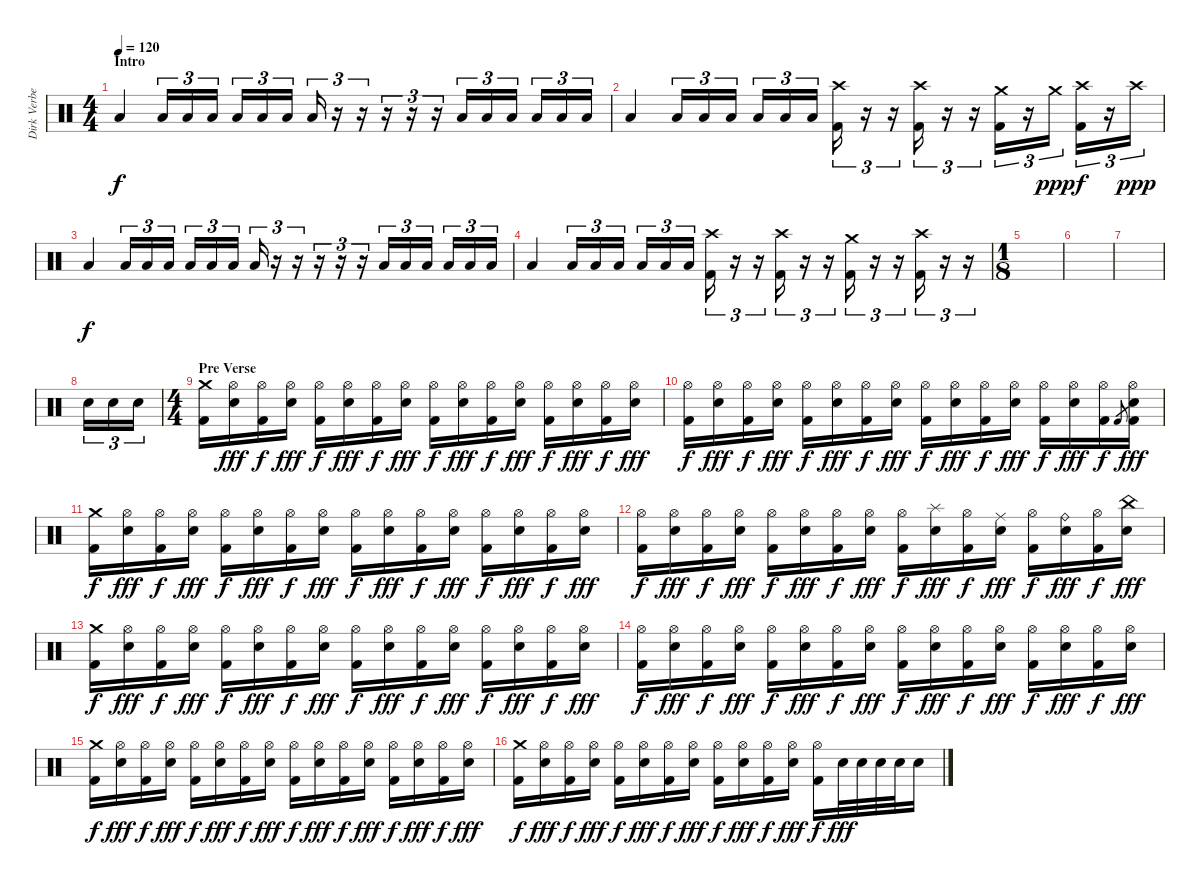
\track ("Dirk Verbeuren" "Dirk Verbe") {instrument percussion}
\staff {score}
\articulation defaults
\ts (4 4)
\section ("" "Intro")
\tempo 120
\clef neutral
\ks c "Low Floor Tom (hit)".4{dy f} "Low Floor Tom (hit)".16{tu (3 2)} "Low Floor Tom (hit)".16{tu (3 2)} "Low Floor Tom (hit)".16{tu (3 2)} "Low Floor Tom (hit)".16{tu (3 2)} "Low Floor Tom (hit)".16{tu (3 2)} "Low Floor Tom (hit)".16{tu (3 2)} "Low Floor Tom (hit)".16{tu (3 2)}
r.16{tu (3 2)} r.16{tu (3 2)} r.16{tu (3 2)} r.16{tu (3 2)} r.16{tu (3 2)} "Low Floor Tom (hit)".16{tu (3 2)} "Low Floor Tom (hit)".16{tu (3 2)} "Low Floor Tom (hit)".16{tu (3 2)} "Low Floor Tom (hit)".16{tu (3 2)} "Low Floor Tom (hit)".16{tu (3 2)} "Low Floor Tom (hit)".16{tu (3 2)} |
"Low Floor Tom (hit)".4 "Low Floor Tom (hit)".16{tu (3 2)} "Low Floor Tom (hit)".16{tu (3 2)} "Low Floor Tom (hit)".16{tu (3 2)} "Low Floor Tom (hit)".16{tu (3 2)} "Low Floor Tom (hit)".16{tu (3 2)} "Low Floor Tom (hit)".16{tu (3 2)} ("Kick (hit) 2" "Crash high (hit)").16{tu (3 2)} r.16{tu (3 2)} r.16{tu (3 2)} ("Kick (hit) 2" "Crash high (hit)").16{tu (3 2)} r.16{tu (3 2)} r.16{tu (3 2)} ("Kick (hit) 2" "Crash medium (hit)").16{tu (3 2)} r.16{tu (3 2)} "Crash medium (hit)".16{tu (3 2) dy ppp} ("Kick (hit) 2" "Crash high (hit)").16{tu (3 2) dy f} r.16{tu (3 2)} "Crash high (hit)".16{tu (3 2) dy ppp} |
"Low Floor Tom (hit)".4{dy f} "Low Floor Tom (hit)".16{tu (3 2)} "Low Floor Tom (hit)".16{tu (3 2)} "Low Floor Tom (hit)".16{tu (3 2)} "Low Floor Tom (hit)".16{tu (3 2)} "Low Floor Tom (hit)".16{tu (3 2)} "Low Floor Tom (hit)".16{tu (3 2)} "Low Floor Tom (hit)".16{tu (3 2)} r.16{tu (3 2)} r.16{tu (3 2)} r.16{tu (3 2)} r.16{tu (3 2)} r.16{tu (3 2)} "Low Floor Tom (hit)".16{tu (3 2)} "Low Floor Tom (hit)".16{tu (3 2)} "Low Floor Tom (hit)".16{tu (3 2)} "Low Floor Tom (hit)".16{tu (3 2)} "Low Floor Tom (hit)".16{tu (3 2)} "Low Floor Tom (hit)".16{tu (3 2)} |
"Low Floor Tom (hit)".4 "Low Floor Tom (hit)".16{tu (3 2)} "Low Floor Tom (hit)".16{tu (3 2)} "Low Floor Tom (hit)".16{tu (3 2)} "Low Floor Tom (hit)".16{tu (3 2)} "Low Floor Tom (hit)".16{tu (3 2)} "Low Floor Tom (hit)".16{tu (3 2)} ("Kick (hit) 2" "Crash high (hit)").16{tu (3 2)} r.16{tu (3 2)} r.16{tu (3 2)} ("Kick (hit) 2" "Crash high (hit)").16{tu (3 2)} r.16{tu (3 2)} r.16{tu (3 2)} ("Kick (hit) 2" "Crash medium (hit)").16{tu (3 2)} r.16{tu (3 2)} r.16{tu (3 2)} ("Kick (hit) 2" "Crash high (hit)").16{tu (3 2)} r.16{tu (3 2)} r.16{tu (3 2)} |
\ts (1 8)
|
|
|
"Electric Snare (hit)".16{tu (3 2)} "Electric Snare (hit)".16{tu (3 2)} "Electric Snare (hit)".16{tu (3 2)} |
\ts (4 4)
\section ("" "Pre Verse")
("Kick (hit) 2" "Crash medium (hit)").16 ("Electric Snare (hit)" "Hi-Hat (open)").16{dy fff} ("Kick (hit) 2" "Hi-Hat (open)").16{dy f} ("Electric Snare (hit)" "Hi-Hat (open)").16{dy fff} ("Kick (hit) 2" "Hi-Hat (open)").16{dy f} ("Electric Snare (hit)" "Hi-Hat (open)").16{dy fff} ("Kick (hit) 2" "Hi-Hat (open)").16{dy f} ("Electric Snare (hit)" "Hi-Hat (open)").16{dy fff} ("Kick (hit) 2" "Hi-Hat (open)").16{dy f} ("Electric Snare (hit)" "Hi-Hat (open)").16{dy fff} ("Kick (hit) 2" "Hi-Hat (open)").16{dy f} ("Electric Snare (hit)" "Hi-Hat (open)").16{dy fff} ("Kick (hit) 2" "Hi-Hat (open)").16{dy f} ("Electric Snare (hit)" "Hi-Hat (open)").16{dy fff} ("Kick (hit) 2" "Hi-Hat (open)").16{dy f} ("Electric Snare (hit)" "Hi-Hat (open)").16{dy fff} |
("Kick (hit) 2" "Hi-Hat (open)").16{dy f} ("Electric Snare (hit)" "Hi-Hat (open)").16{dy fff} ("Kick (hit) 2" "Hi-Hat (open)").16{dy f} ("Electric Snare (hit)" "Hi-Hat (open)").16{dy fff} ("Kick (hit) 2" "Hi-Hat (open)").16{dy f} ("Electric Snare (hit)" "Hi-Hat (open)").16{dy fff} ("Kick (hit) 2" "Hi-Hat (open)").16{dy f} ("Electric Snare (hit)" "Hi-Hat (open)").16{dy fff} ("Kick (hit) 2" "Hi-Hat (open)").16{dy f} ("Electric Snare (hit)" "Hi-Hat (open)").16{dy fff} ("Kick (hit) 2" "Hi-Hat (open)").16{dy f} ("Electric Snare (hit)" "Hi-Hat (open)").16{dy fff} ("Kick (hit) 2" "Hi-Hat (open)").16{dy f} ("Electric Snare (hit)" "Hi-Hat (open)").16{dy fff} ("Kick (hit) 2" "Hi-Hat (open)").16{dy f} "Kick (hit) 2".8{gr} ("Kick (hit) 2" "Electric Snare (hit)" "Hi-Hat (open)").16{dy fff} |
("Kick (hit) 2" "Crash medium (hit)").16{dy f} ("Electric Snare (hit)" "Hi-Hat (open)").16{dy fff} ("Kick (hit) 2" "Hi-Hat (open)").16{dy f} ("Electric Snare (hit)" "Hi-Hat (open)").16{dy fff} ("Kick (hit) 2" "Hi-Hat (open)").16{dy f} ("Electric Snare (hit)" "Hi-Hat (open)").16{dy fff} ("Kick (hit) 2" "Hi-Hat (open)").16{dy f} ("Electric Snare (hit)" "Hi-Hat (open)").16{dy fff} ("Kick (hit) 2" "Hi-Hat (open)").16{dy f} ("Electric Snare (hit)" "Hi-Hat (open)").16{dy fff} ("Kick (hit) 2" "Hi-Hat (open)").16{dy f} ("Electric Snare (hit)" "Hi-Hat (open)").16{dy fff} ("Kick (hit) 2" "Hi-Hat (open)").16{dy f} ("Electric Snare (hit)" "Hi-Hat (open)").16{dy fff} ("Kick (hit) 2" "Hi-Hat (open)").16{dy f} ("Electric Snare (hit)" "Hi-Hat (open)").16{dy fff} |
("Kick (hit) 2" "Hi-Hat (open)").16{dy f} ("Electric Snare (hit)" "Hi-Hat (open)").16{dy fff} ("Kick (hit) 2" "Hi-Hat (open)").16{dy f} ("Electric Snare (hit)" "Hi-Hat (open)").16{dy fff} ("Kick (hit) 2" "Hi-Hat (open)").16{dy f} ("Electric Snare (hit)" "Hi-Hat (open)").16{dy fff} ("Kick (hit) 2" "Hi-Hat (open)").16{dy f} ("Electric Snare (hit)" "Hi-Hat (open)").16{dy fff} ("Kick (hit) 2" "Hi-Hat (open)").16{dy f} ("Electric Snare (hit)" "Splash (hit)").16{dy fff} ("Kick (hit) 2" "Hi-Hat (open)").16{dy f} ("Electric Snare (hit)" "Ride (middle)").16{dy fff} ("Kick (hit) 2" "Hi-Hat (open)").16{dy f} ("Electric Snare (hit)" "Ride (bell)").16{dy fff} ("Kick (hit) 2" "Hi-Hat (open)").16{dy f} ("Electric Snare (hit)" "China (hit)").16{dy fff} |
("Kick (hit) 2" "Crash medium (hit)").16{dy f} ("Electric Snare (hit)" "Hi-Hat (open)").16{dy fff} ("Kick (hit) 2" "Hi-Hat (open)").16{dy f} ("Electric Snare (hit)" "Hi-Hat (open)").16{dy fff} ("Kick (hit) 2" "Hi-Hat (open)").16{dy f} ("Electric Snare (hit)" "Hi-Hat (open)").16{dy fff} ("Kick (hit) 2" "Hi-Hat (open)").16{dy f} ("Electric Snare (hit)" "Hi-Hat (open)").16{dy fff} ("Kick (hit) 2" "Hi-Hat (open)").16{dy f} ("Electric Snare (hit)" "Hi-Hat (open)").16{dy fff} ("Kick (hit) 2" "Hi-Hat (open)").16{dy f} ("Electric Snare (hit)" "Hi-Hat (open)").16{dy fff} ("Kick (hit) 2" "Hi-Hat (open)").16{dy f} ("Electric Snare (hit)" "Hi-Hat (open)").16{dy fff} ("Kick (hit) 2" "Hi-Hat (open)").16{dy f} ("Electric Snare (hit)" "Hi-Hat (open)").16{dy fff} |
("Kick (hit) 2" "Hi-Hat (open)").16{dy f} ("Electric Snare (hit)" "Hi-Hat (open)").16{dy fff} ("Kick (hit) 2" "Hi-Hat (open)").16{dy f} ("Electric Snare (hit)" "Hi-Hat (open)").16{dy fff} ("Kick (hit) 2" "Hi-Hat (open)").16{dy f} ("Electric Snare (hit)" "Hi-Hat (open)").16{dy fff} ("Kick (hit) 2" "Hi-Hat (open)").16{dy f} ("Electric Snare (hit)" "Hi-Hat (open)").16{dy fff} ("Kick (hit) 2" "Hi-Hat (open)").16{dy f} ("Electric Snare (hit)" "Hi-Hat (open)").16{dy fff} ("Kick (hit) 2" "Hi-Hat (open)").16{dy f} ("Electric Snare (hit)" "Hi-Hat (open)").16{dy fff} ("Kick (hit) 2" "Hi-Hat (open)").16{dy f} ("Electric Snare (hit)" "Hi-Hat (open)").16{dy fff} ("Kick (hit) 2" "Hi-Hat (open)").16{dy f} ("Electric Snare (hit)" "Hi-Hat (open)").16{dy fff} |
("Kick (hit) 2" "Crash medium (hit)").16{dy f} ("Electric Snare (hit)" "Hi-Hat (open)").16{dy fff} ("Kick (hit) 2" "Hi-Hat (open)").16{dy f} ("Electric Snare (hit)" "Hi-Hat (open)").16{dy fff} ("Kick (hit) 2" "Hi-Hat (open)").16{dy f} ("Electric Snare (hit)" "Hi-Hat (open)").16{dy fff} ("Kick (hit) 2" "Hi-Hat (open)").16{dy f} ("Electric Snare (hit)" "Hi-Hat (open)").16{dy fff} ("Kick (hit) 2" "Hi-Hat (open)").16{dy f} ("Electric Snare (hit)" "Hi-Hat (open)").16{dy fff} ("Kick (hit) 2" "Hi-Hat (open)").16{dy f} ("Electric Snare (hit)" "Hi-Hat (open)").16{dy fff} ("Kick (hit) 2" "Hi-Hat (open)").16{dy f} ("Electric Snare (hit)" "Hi-Hat (open)").16{dy fff} ("Kick (hit) 2" "Hi-Hat (open)").16{dy f} ("Electric Snare (hit)" "Hi-Hat (open)").16{dy fff} |
("Kick (hit) 2" "Crash medium (hit)").16{dy f} ("Electric Snare (hit)" "Hi-Hat (open)").16{dy fff} ("Kick (hit) 2" "Hi-Hat (open)").16{dy f} ("Electric Snare (hit)" "Hi-Hat (open)").16{dy fff} ("Kick (hit) 2" "Hi-Hat (open)").16{dy f} ("Electric Snare (hit)" "Hi-Hat (open)").16{dy fff} ("Kick (hit) 2" "Hi-Hat (open)").16{dy f} ("Electric Snare (hit)" "Hi-Hat (open)").16{dy fff} ("Kick (hit) 2" "Hi-Hat (open)").16{dy f} ("Electric Snare (hit)" "Hi-Hat (open)").16{dy fff} ("Kick (hit) 2" "Hi-Hat (open)").16{dy f} ("Electric Snare (hit)" "Hi-Hat (open)").16{dy fff} ("Kick (hit) 2" "Hi-Hat (open)").16{dy f} "Electric Snare (hit)".32{dy fff} "Electric Snare (hit)".32 "Electric Snare (hit)".32 "Electric Snare (hit)".32 "Electric Snare (hit)".16
